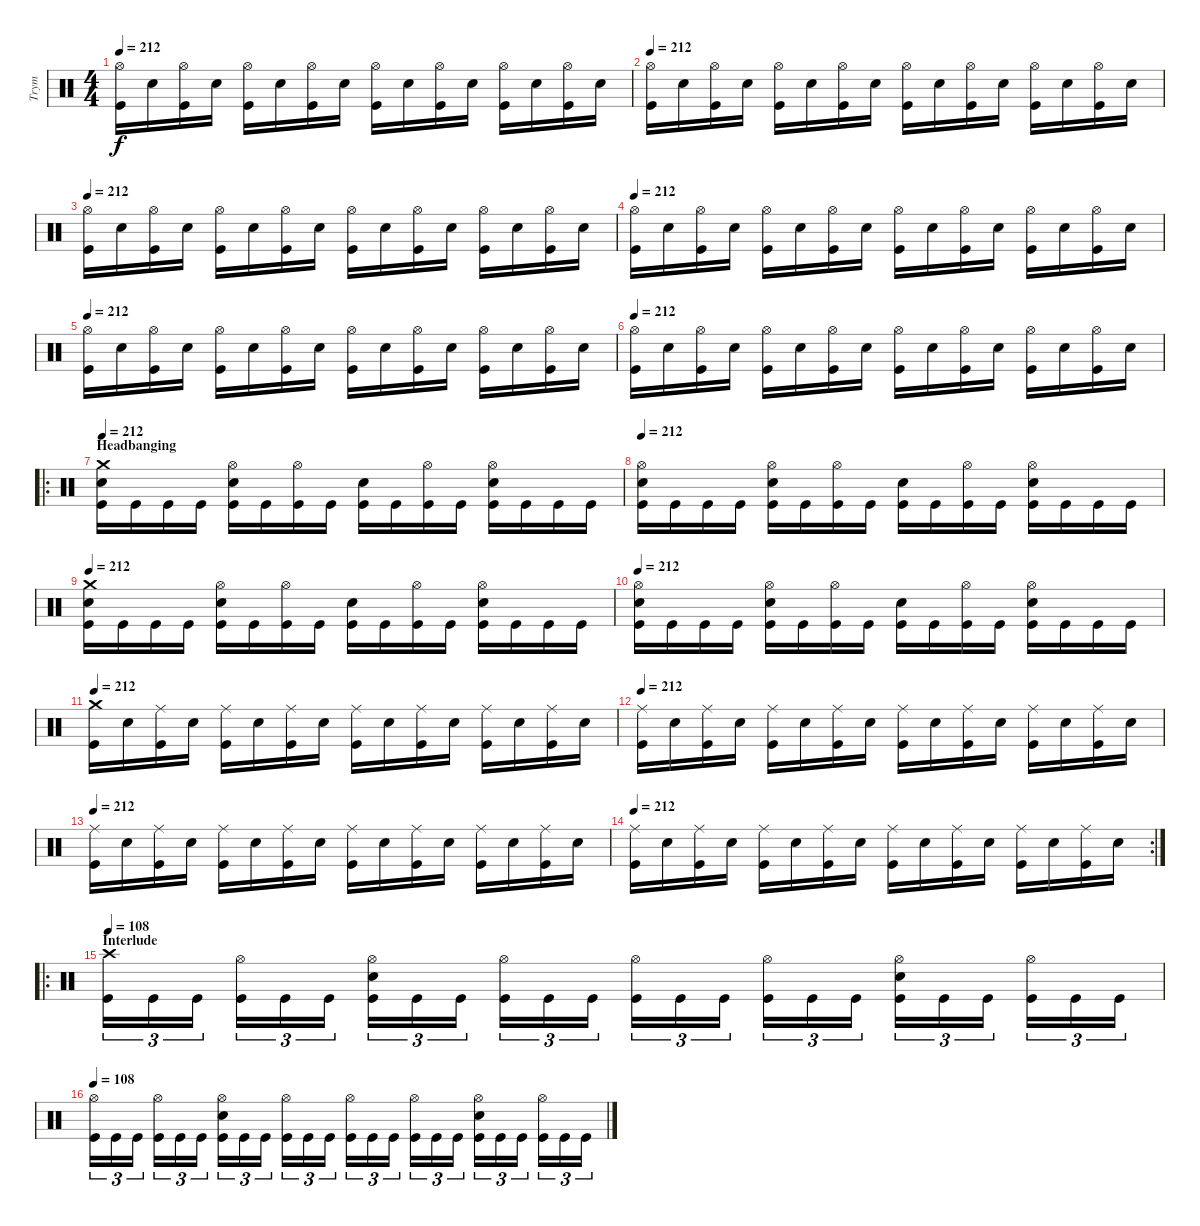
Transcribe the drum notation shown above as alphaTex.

\track ("Trym" "Trym") {instrument percussion}
\staff {score}
\articulation defaults
\ts (4 4)
\tempo 212
\clef neutral
\ks c
("Hi-Hat (open)" "Kick (hit)").16{dy f} "Electric Snare (hit)".16 ("Hi-Hat (open)" "Kick (hit)").16 "Electric Snare (hit)".16 ("Hi-Hat (open)" "Kick (hit)").16 "Electric Snare (hit)".16 ("Hi-Hat (open)" "Kick (hit)").16 "Electric Snare (hit)".16 ("Hi-Hat (open)" "Kick (hit)").16 "Electric Snare (hit)".16 ("Hi-Hat (open)" "Kick (hit)").16 "Electric Snare (hit)".16 ("Hi-Hat (open)" "Kick (hit)").16 "Electric Snare (hit)".16 ("Hi-Hat (open)" "Kick (hit)").16 "Electric Snare (hit)".16 |
\tempo 212
("Hi-Hat (open)" "Kick (hit)").16 "Electric Snare (hit)".16 ("Hi-Hat (open)" "Kick (hit)").16 "Electric Snare (hit)".16 ("Hi-Hat (open)" "Kick (hit)").16 "Electric Snare (hit)".16 ("Hi-Hat (open)" "Kick (hit)").16 "Electric Snare (hit)".16 ("Hi-Hat (open)" "Kick (hit)").16 "Electric Snare (hit)".16 ("Hi-Hat (open)" "Kick (hit)").16 "Electric Snare (hit)".16 ("Hi-Hat (open)" "Kick (hit)").16 "Electric Snare (hit)".16 ("Hi-Hat (open)" "Kick (hit)").16 "Electric Snare (hit)".16 |
\tempo 212
("Hi-Hat (open)" "Kick (hit)").16 "Electric Snare (hit)".16 ("Hi-Hat (open)" "Kick (hit)").16 "Electric Snare (hit)".16 ("Hi-Hat (open)" "Kick (hit)").16 "Electric Snare (hit)".16 ("Hi-Hat (open)" "Kick (hit)").16 "Electric Snare (hit)".16 ("Hi-Hat (open)" "Kick (hit)").16 "Electric Snare (hit)".16 ("Hi-Hat (open)" "Kick (hit)").16 "Electric Snare (hit)".16 ("Hi-Hat (open)" "Kick (hit)").16 "Electric Snare (hit)".16 ("Hi-Hat (open)" "Kick (hit)").16 "Electric Snare (hit)".16 |
\tempo 212
("Hi-Hat (open)" "Kick (hit)").16 "Electric Snare (hit)".16 ("Hi-Hat (open)" "Kick (hit)").16 "Electric Snare (hit)".16 ("Hi-Hat (open)" "Kick (hit)").16 "Electric Snare (hit)".16 ("Hi-Hat (open)" "Kick (hit)").16 "Electric Snare (hit)".16 ("Hi-Hat (open)" "Kick (hit)").16 "Electric Snare (hit)".16 ("Hi-Hat (open)" "Kick (hit)").16 "Electric Snare (hit)".16 ("Hi-Hat (open)" "Kick (hit)").16 "Electric Snare (hit)".16 ("Hi-Hat (open)" "Kick (hit)").16 "Electric Snare (hit)".16 |
\tempo 212
("Hi-Hat (open)" "Kick (hit)").16 "Electric Snare (hit)".16 ("Hi-Hat (open)" "Kick (hit)").16 "Electric Snare (hit)".16 ("Hi-Hat (open)" "Kick (hit)").16 "Electric Snare (hit)".16 ("Hi-Hat (open)" "Kick (hit)").16 "Electric Snare (hit)".16 ("Hi-Hat (open)" "Kick (hit)").16 "Electric Snare (hit)".16 ("Hi-Hat (open)" "Kick (hit)").16 "Electric Snare (hit)".16 ("Hi-Hat (open)" "Kick (hit)").16 "Electric Snare (hit)".16 ("Hi-Hat (open)" "Kick (hit)").16 "Electric Snare (hit)".16 |
\tempo 212
("Hi-Hat (open)" "Kick (hit)").16 "Electric Snare (hit)".16 ("Hi-Hat (open)" "Kick (hit)").16 "Electric Snare (hit)".16 ("Hi-Hat (open)" "Kick (hit)").16 "Electric Snare (hit)".16 ("Hi-Hat (open)" "Kick (hit)").16 "Electric Snare (hit)".16 ("Hi-Hat (open)" "Kick (hit)").16 "Electric Snare (hit)".16 ("Hi-Hat (open)" "Kick (hit)").16 "Electric Snare (hit)".16 ("Hi-Hat (open)" "Kick (hit)").16 "Electric Snare (hit)".16 ("Hi-Hat (open)" "Kick (hit)").16 "Electric Snare (hit)".16 |
\ro
\section ("" "Headbanging")
\tempo 212
("Crash medium (hit)" "Electric Snare (hit)" "Kick (hit)").16 "Kick (hit)".16 "Kick (hit)".16 "Kick (hit)".16 ("Hi-Hat (open)" "Electric Snare (hit)" "Kick (hit)").16 "Kick (hit)".16 ("Hi-Hat (open)" "Kick (hit)").16 "Kick (hit)".16 ("Electric Snare (hit)" "Kick (hit)").16 "Kick (hit)".16 ("Hi-Hat (open)" "Kick (hit)").16 "Kick (hit)".16 ("Hi-Hat (open)" "Electric Snare (hit)" "Kick (hit)").16 "Kick (hit)".16 "Kick (hit)".16 "Kick (hit)".16 |
\tempo 212
("Hi-Hat (open)" "Electric Snare (hit)" "Kick (hit)").16 "Kick (hit)".16 "Kick (hit)".16 "Kick (hit)".16 ("Hi-Hat (open)" "Electric Snare (hit)" "Kick (hit)").16 "Kick (hit)".16 ("Hi-Hat (open)" "Kick (hit)").16 "Kick (hit)".16 ("Electric Snare (hit)" "Kick (hit)").16 "Kick (hit)".16 ("Hi-Hat (open)" "Kick (hit)").16 "Kick (hit)".16 ("Hi-Hat (open)" "Electric Snare (hit)" "Kick (hit)").16 "Kick (hit)".16 "Kick (hit)".16 "Kick (hit)".16 |
\tempo 212
("Crash medium (hit)" "Electric Snare (hit)" "Kick (hit)").16 "Kick (hit)".16 "Kick (hit)".16 "Kick (hit)".16 ("Hi-Hat (open)" "Electric Snare (hit)" "Kick (hit)").16 "Kick (hit)".16 ("Hi-Hat (open)" "Kick (hit)").16 "Kick (hit)".16 ("Electric Snare (hit)" "Kick (hit)").16 "Kick (hit)".16 ("Hi-Hat (open)" "Kick (hit)").16 "Kick (hit)".16 ("Hi-Hat (open)" "Electric Snare (hit)" "Kick (hit)").16 "Kick (hit)".16 "Kick (hit)".16 "Kick (hit)".16 |
\tempo 212
("Hi-Hat (open)" "Electric Snare (hit)" "Kick (hit)").16 "Kick (hit)".16 "Kick (hit)".16 "Kick (hit)".16 ("Hi-Hat (open)" "Electric Snare (hit)" "Kick (hit)").16 "Kick (hit)".16 ("Hi-Hat (open)" "Kick (hit)").16 "Kick (hit)".16 ("Electric Snare (hit)" "Kick (hit)").16 "Kick (hit)".16 ("Hi-Hat (open)" "Kick (hit)").16 "Kick (hit)".16 ("Hi-Hat (open)" "Electric Snare (hit)" "Kick (hit)").16 "Kick (hit)".16 "Kick (hit)".16 "Kick (hit)".16 |
\tempo 212
("Crash medium (hit)" "Kick (hit)").16 "Electric Snare (hit)".16 ("Ride (middle)" "Kick (hit)").16 "Electric Snare (hit)".16 ("Ride (middle)" "Kick (hit)").16 "Electric Snare (hit)".16 ("Ride (middle)" "Kick (hit)").16 "Electric Snare (hit)".16 ("Ride (middle)" "Kick (hit)").16 "Electric Snare (hit)".16 ("Ride (middle)" "Kick (hit)").16 "Electric Snare (hit)".16 ("Ride (middle)" "Kick (hit)").16 "Electric Snare (hit)".16 ("Ride (middle)" "Kick (hit)").16 "Electric Snare (hit)".16 |
\tempo 212
("Ride (middle)" "Kick (hit)").16 "Electric Snare (hit)".16 ("Ride (middle)" "Kick (hit)").16 "Electric Snare (hit)".16 ("Ride (middle)" "Kick (hit)").16 "Electric Snare (hit)".16 ("Ride (middle)" "Kick (hit)").16 "Electric Snare (hit)".16 ("Ride (middle)" "Kick (hit)").16 "Electric Snare (hit)".16 ("Ride (middle)" "Kick (hit)").16 "Electric Snare (hit)".16 ("Ride (middle)" "Kick (hit)").16 "Electric Snare (hit)".16 ("Ride (middle)" "Kick (hit)").16 "Electric Snare (hit)".16 |
\tempo 212
("Ride (middle)" "Kick (hit)").16 "Electric Snare (hit)".16 ("Ride (middle)" "Kick (hit)").16 "Electric Snare (hit)".16 ("Ride (middle)" "Kick (hit)").16 "Electric Snare (hit)".16 ("Ride (middle)" "Kick (hit)").16 "Electric Snare (hit)".16 ("Ride (middle)" "Kick (hit)").16 "Electric Snare (hit)".16 ("Ride (middle)" "Kick (hit)").16 "Electric Snare (hit)".16 ("Ride (middle)" "Kick (hit)").16 "Electric Snare (hit)".16 ("Ride (middle)" "Kick (hit)").16 "Electric Snare (hit)".16 |
\rc 2
\tempo 212
("Ride (middle)" "Kick (hit)").16 "Electric Snare (hit)".16 ("Ride (middle)" "Kick (hit)").16 "Electric Snare (hit)".16 ("Ride (middle)" "Kick (hit)").16 "Electric Snare (hit)".16 ("Ride (middle)" "Kick (hit)").16 "Electric Snare (hit)".16 ("Ride (middle)" "Kick (hit)").16 "Electric Snare (hit)".16 ("Ride (middle)" "Kick (hit)").16 "Electric Snare (hit)".16 ("Ride (middle)" "Kick (hit)").16 "Electric Snare (hit)".16 ("Ride (middle)" "Kick (hit)").16 "Electric Snare (hit)".16 |
\ro
\section ("" "Interlude")
\tempo 108
("Crash high (hit)" "Kick (hit)").16{tu (3 2)} "Kick (hit)".16{tu (3 2)} "Kick (hit)".16{tu (3 2)} ("Hi-Hat (open)" "Kick (hit)").16{tu (3 2)} "Kick (hit)".16{tu (3 2)} "Kick (hit)".16{tu (3 2)} ("Hi-Hat (open)" "Electric Snare (hit)" "Kick (hit)").16{tu (3 2)} "Kick (hit)".16{tu (3 2)} "Kick (hit)".16{tu (3 2)} ("Hi-Hat (open)" "Kick (hit)").16{tu (3 2)} "Kick (hit)".16{tu (3 2)} "Kick (hit)".16{tu (3 2)} ("Hi-Hat (open)" "Kick (hit)").16{tu (3 2)} "Kick (hit)".16{tu (3 2)} "Kick (hit)".16{tu (3 2)} ("Hi-Hat (open)" "Kick (hit)").16{tu (3 2)} "Kick (hit)".16{tu (3 2)} "Kick (hit)".16{tu (3 2)} ("Hi-Hat (open)" "Electric Snare (hit)" "Kick (hit)").16{tu (3 2)} "Kick (hit)".16{tu (3 2)} "Kick (hit)".16{tu (3 2)} ("Hi-Hat (open)" "Kick (hit)").16{tu (3 2)} "Kick (hit)".16{tu (3 2)} "Kick (hit)".16{tu (3 2)} |
\tempo 108
("Hi-Hat (open)" "Kick (hit)").16{tu (3 2)} "Kick (hit)".16{tu (3 2)} "Kick (hit)".16{tu (3 2)} ("Hi-Hat (open)" "Kick (hit)").16{tu (3 2)} "Kick (hit)".16{tu (3 2)} "Kick (hit)".16{tu (3 2)} ("Hi-Hat (open)" "Electric Snare (hit)" "Kick (hit)").16{tu (3 2)} "Kick (hit)".16{tu (3 2)} "Kick (hit)".16{tu (3 2)} ("Hi-Hat (open)" "Kick (hit)").16{tu (3 2)} "Kick (hit)".16{tu (3 2)} "Kick (hit)".16{tu (3 2)} ("Hi-Hat (open)" "Kick (hit)").16{tu (3 2)} "Kick (hit)".16{tu (3 2)} "Kick (hit)".16{tu (3 2)} ("Hi-Hat (open)" "Kick (hit)").16{tu (3 2)} "Kick (hit)".16{tu (3 2)} "Kick (hit)".16{tu (3 2)} ("Hi-Hat (open)" "Electric Snare (hit)" "Kick (hit)").16{tu (3 2)} "Kick (hit)".16{tu (3 2)} "Kick (hit)".16{tu (3 2)} ("Hi-Hat (open)" "Kick (hit)").16{tu (3 2)} "Kick (hit)".16{tu (3 2)} "Kick (hit)".16{tu (3 2)}
